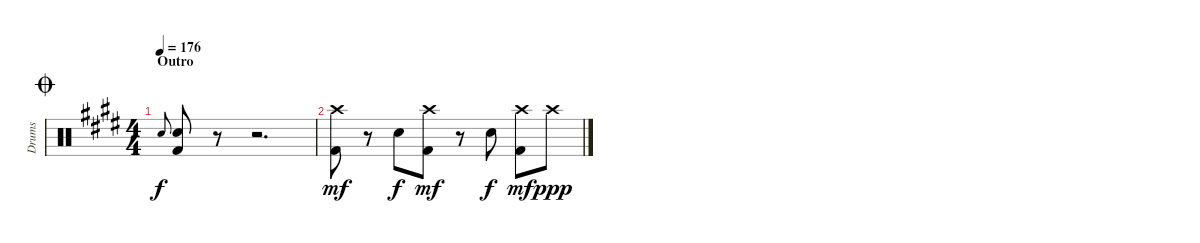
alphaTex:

\track ("Drums" "Drums") {instrument percussion}
\staff {score}
\articulation defaults
\ts (4 4)
\section ("" "Outro")
\jump coda
\tempo 176
\clef neutral
\ks e "Snare (hit) 2".8{gr onbeat dy f}
("Snare (hit) 2" "Kick (hit) 2").8 r.8 r.2{d} |
("Crash high (hit)" "Kick (hit) 2").8{dy mf} r.8 "Snare (hit) 2".8{dy f} ("Crash high (hit)" "Kick (hit) 2").8{dy mf} r.8 "Snare (hit) 2".8{dy f} ("Crash high (hit)" "Kick (hit) 2").8{dy mf} "Crash high (hit)".8{dy ppp}
